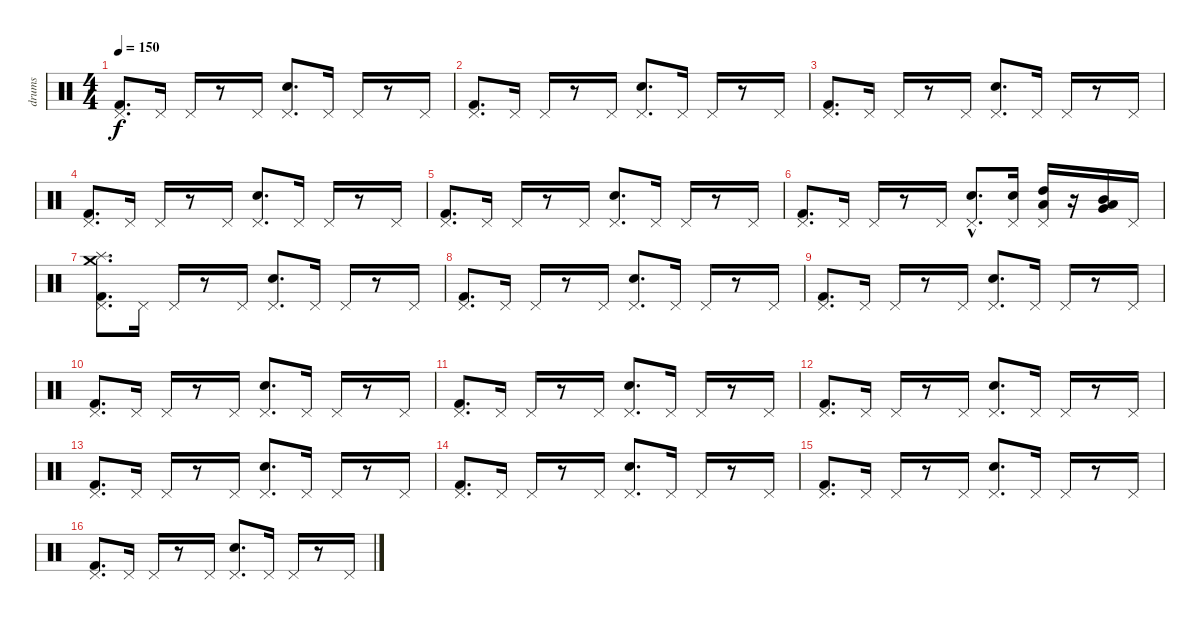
\track ("drums" "drums") {instrument percussion}
\staff {score}
\articulation defaults
\ts (4 4)
\tempo 150
\clef neutral
\ks c
("Kick (hit) 2" "Pedal Hi-Hat (hit)").8{d dy f} "Pedal Hi-Hat (hit)".16 "Pedal Hi-Hat (hit)".16 r.8 "Pedal Hi-Hat (hit)".16 ("Snare (hit) 2" "Pedal Hi-Hat (hit)").8{d} "Pedal Hi-Hat (hit)".16 "Pedal Hi-Hat (hit)".16 r.8 "Pedal Hi-Hat (hit)".16 |
("Kick (hit) 2" "Pedal Hi-Hat (hit)").8{d} "Pedal Hi-Hat (hit)".16 "Pedal Hi-Hat (hit)".16 r.8 "Pedal Hi-Hat (hit)".16 ("Snare (hit) 2" "Pedal Hi-Hat (hit)").8{d} "Pedal Hi-Hat (hit)".16 "Pedal Hi-Hat (hit)".16 r.8 "Pedal Hi-Hat (hit)".16 |
("Kick (hit) 2" "Pedal Hi-Hat (hit)").8{d} "Pedal Hi-Hat (hit)".16 "Pedal Hi-Hat (hit)".16 r.8 "Pedal Hi-Hat (hit)".16 ("Snare (hit) 2" "Pedal Hi-Hat (hit)").8{d} "Pedal Hi-Hat (hit)".16 "Pedal Hi-Hat (hit)".16 r.8 "Pedal Hi-Hat (hit)".16 |
("Kick (hit) 2" "Pedal Hi-Hat (hit)").8{d} "Pedal Hi-Hat (hit)".16 "Pedal Hi-Hat (hit)".16 r.8 "Pedal Hi-Hat (hit)".16 ("Snare (hit) 2" "Pedal Hi-Hat (hit)").8{d} "Pedal Hi-Hat (hit)".16 "Pedal Hi-Hat (hit)".16 r.8 "Pedal Hi-Hat (hit)".16 |
("Kick (hit) 2" "Pedal Hi-Hat (hit)").8{d} "Pedal Hi-Hat (hit)".16 "Pedal Hi-Hat (hit)".16 r.8 "Pedal Hi-Hat (hit)".16 ("Snare (hit) 2" "Pedal Hi-Hat (hit)").8{d} "Pedal Hi-Hat (hit)".16 "Pedal Hi-Hat (hit)".16 r.8 "Pedal Hi-Hat (hit)".16 |
("Kick (hit) 2" "Pedal Hi-Hat (hit)").8{d} "Pedal Hi-Hat (hit)".16 "Pedal Hi-Hat (hit)".16 r.8 "Pedal Hi-Hat (hit)".16 ("Snare (hit) 2"{hac} "Pedal Hi-Hat (hit)").8{d} ("Pedal Hi-Hat (hit)" "Snare (hit) 2").16 ("Pedal Hi-Hat (hit)" "High Tom (hit)" "Low Tom (hit)").16 r.16 ("Mid Tom (hit)" "Low Tom (hit)" "Very Low Tom (hit)").16 "Pedal Hi-Hat (hit)".16 |
("Crash medium (hit)" "Splash (hit)" "Kick (hit) 2" "Pedal Hi-Hat (hit)").8{d} "Pedal Hi-Hat (hit)".16 "Pedal Hi-Hat (hit)".16 r.8 "Pedal Hi-Hat (hit)".16 ("Snare (hit) 2" "Pedal Hi-Hat (hit)").8{d} "Pedal Hi-Hat (hit)".16 "Pedal Hi-Hat (hit)".16 r.8 "Pedal Hi-Hat (hit)".16 |
("Kick (hit) 2" "Pedal Hi-Hat (hit)").8{d} "Pedal Hi-Hat (hit)".16 "Pedal Hi-Hat (hit)".16 r.8 "Pedal Hi-Hat (hit)".16 ("Snare (hit) 2" "Pedal Hi-Hat (hit)").8{d} "Pedal Hi-Hat (hit)".16 "Pedal Hi-Hat (hit)".16 r.8 "Pedal Hi-Hat (hit)".16 |
("Kick (hit) 2" "Pedal Hi-Hat (hit)").8{d} "Pedal Hi-Hat (hit)".16 "Pedal Hi-Hat (hit)".16 r.8 "Pedal Hi-Hat (hit)".16 ("Snare (hit) 2" "Pedal Hi-Hat (hit)").8{d} "Pedal Hi-Hat (hit)".16 "Pedal Hi-Hat (hit)".16 r.8 "Pedal Hi-Hat (hit)".16 |
("Kick (hit) 2" "Pedal Hi-Hat (hit)").8{d} "Pedal Hi-Hat (hit)".16 "Pedal Hi-Hat (hit)".16 r.8 "Pedal Hi-Hat (hit)".16 ("Snare (hit) 2" "Pedal Hi-Hat (hit)").8{d} "Pedal Hi-Hat (hit)".16 "Pedal Hi-Hat (hit)".16 r.8 "Pedal Hi-Hat (hit)".16 |
("Kick (hit) 2" "Pedal Hi-Hat (hit)").8{d} "Pedal Hi-Hat (hit)".16 "Pedal Hi-Hat (hit)".16 r.8 "Pedal Hi-Hat (hit)".16 ("Snare (hit) 2" "Pedal Hi-Hat (hit)").8{d} "Pedal Hi-Hat (hit)".16 "Pedal Hi-Hat (hit)".16 r.8 "Pedal Hi-Hat (hit)".16 |
("Kick (hit) 2" "Pedal Hi-Hat (hit)").8{d} "Pedal Hi-Hat (hit)".16 "Pedal Hi-Hat (hit)".16 r.8 "Pedal Hi-Hat (hit)".16 ("Snare (hit) 2" "Pedal Hi-Hat (hit)").8{d} "Pedal Hi-Hat (hit)".16 "Pedal Hi-Hat (hit)".16 r.8 "Pedal Hi-Hat (hit)".16 |
("Kick (hit) 2" "Pedal Hi-Hat (hit)").8{d} "Pedal Hi-Hat (hit)".16 "Pedal Hi-Hat (hit)".16 r.8 "Pedal Hi-Hat (hit)".16 ("Snare (hit) 2" "Pedal Hi-Hat (hit)").8{d} "Pedal Hi-Hat (hit)".16 "Pedal Hi-Hat (hit)".16 r.8 "Pedal Hi-Hat (hit)".16 |
("Kick (hit) 2" "Pedal Hi-Hat (hit)").8{d} "Pedal Hi-Hat (hit)".16 "Pedal Hi-Hat (hit)".16 r.8 "Pedal Hi-Hat (hit)".16 ("Snare (hit) 2" "Pedal Hi-Hat (hit)").8{d} "Pedal Hi-Hat (hit)".16 "Pedal Hi-Hat (hit)".16 r.8 "Pedal Hi-Hat (hit)".16 |
("Kick (hit) 2" "Pedal Hi-Hat (hit)").8{d} "Pedal Hi-Hat (hit)".16 "Pedal Hi-Hat (hit)".16 r.8 "Pedal Hi-Hat (hit)".16 ("Snare (hit) 2" "Pedal Hi-Hat (hit)").8{d} "Pedal Hi-Hat (hit)".16 "Pedal Hi-Hat (hit)".16 r.8 "Pedal Hi-Hat (hit)".16 |
("Kick (hit) 2" "Pedal Hi-Hat (hit)").8{d} "Pedal Hi-Hat (hit)".16 "Pedal Hi-Hat (hit)".16 r.8 "Pedal Hi-Hat (hit)".16 ("Snare (hit) 2" "Pedal Hi-Hat (hit)").8{d} "Pedal Hi-Hat (hit)".16 "Pedal Hi-Hat (hit)".16 r.8 "Pedal Hi-Hat (hit)".16
